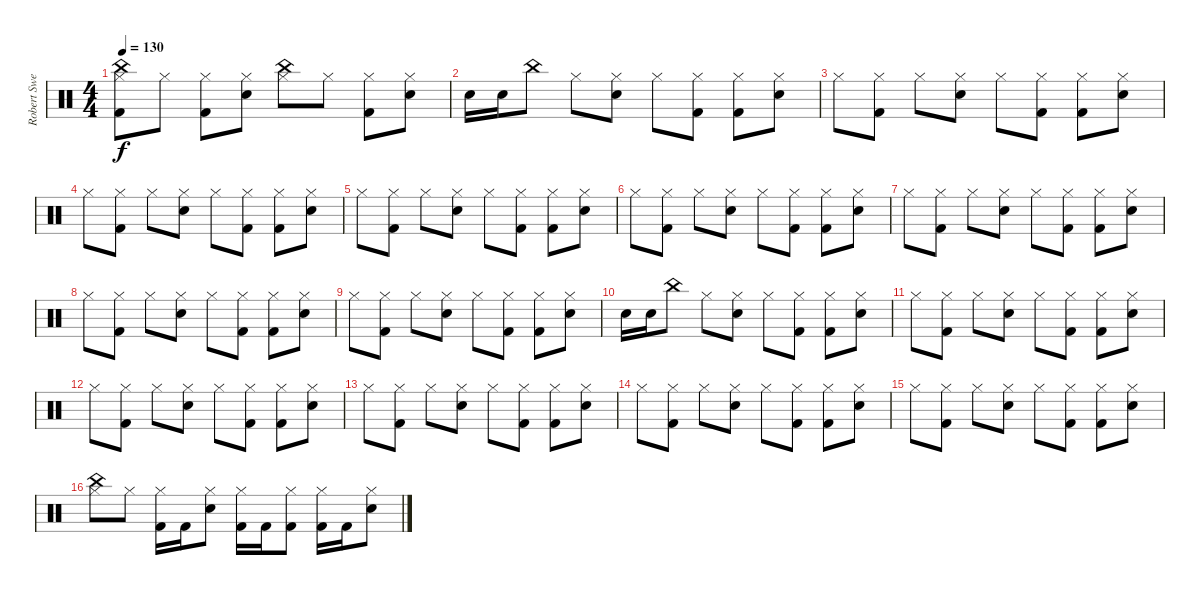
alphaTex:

\track ("Robert Sweet" "Robert Swe") {instrument percussion}
\staff {score}
\articulation defaults
\ts (4 4)
\tempo 130
\clef neutral
\ks c
("Hi-Hat (closed)" "Kick (hit) 2" "China (hit)").8{dy f} "Hi-Hat (closed)".8 ("Hi-Hat (closed)" "Kick (hit) 2").8 ("Hi-Hat (closed)" "Snare (hit) 2").8 ("Hi-Hat (closed)" "China (hit)").8 "Hi-Hat (closed)".8 ("Hi-Hat (closed)" "Kick (hit) 2").8 ("Hi-Hat (closed)" "Snare (hit) 2").8 |
"Snare (hit) 2".16 "Snare (hit) 2".16 "China (hit)".8 "Hi-Hat (closed)".8 ("Hi-Hat (closed)" "Snare (hit) 2").8 "Hi-Hat (closed)".8 ("Hi-Hat (closed)" "Kick (hit) 2").8 ("Hi-Hat (closed)" "Kick (hit) 2").8 ("Hi-Hat (closed)" "Snare (hit) 2").8 |
"Hi-Hat (closed)".8 ("Hi-Hat (closed)" "Kick (hit) 2").8 "Hi-Hat (closed)".8 ("Hi-Hat (closed)" "Snare (hit) 2").8 "Hi-Hat (closed)".8 ("Hi-Hat (closed)" "Kick (hit) 2").8 ("Hi-Hat (closed)" "Kick (hit) 2").8 ("Hi-Hat (closed)" "Snare (hit) 2").8 |
"Hi-Hat (closed)".8 ("Hi-Hat (closed)" "Kick (hit) 2").8 "Hi-Hat (closed)".8 ("Hi-Hat (closed)" "Snare (hit) 2").8 "Hi-Hat (closed)".8 ("Hi-Hat (closed)" "Kick (hit) 2").8 ("Hi-Hat (closed)" "Kick (hit) 2").8 ("Hi-Hat (closed)" "Snare (hit) 2").8 |
"Hi-Hat (closed)".8 ("Hi-Hat (closed)" "Kick (hit) 2").8 "Hi-Hat (closed)".8 ("Hi-Hat (closed)" "Snare (hit) 2").8 "Hi-Hat (closed)".8 ("Hi-Hat (closed)" "Kick (hit) 2").8 ("Hi-Hat (closed)" "Kick (hit) 2").8 ("Hi-Hat (closed)" "Snare (hit) 2").8 |
"Hi-Hat (closed)".8 ("Hi-Hat (closed)" "Kick (hit) 2").8 "Hi-Hat (closed)".8 ("Hi-Hat (closed)" "Snare (hit) 2").8 "Hi-Hat (closed)".8 ("Hi-Hat (closed)" "Kick (hit) 2").8 ("Hi-Hat (closed)" "Kick (hit) 2").8 ("Hi-Hat (closed)" "Snare (hit) 2").8 |
"Hi-Hat (closed)".8 ("Hi-Hat (closed)" "Kick (hit) 2").8 "Hi-Hat (closed)".8 ("Hi-Hat (closed)" "Snare (hit) 2").8 "Hi-Hat (closed)".8 ("Hi-Hat (closed)" "Kick (hit) 2").8 ("Hi-Hat (closed)" "Kick (hit) 2").8 ("Hi-Hat (closed)" "Snare (hit) 2").8 |
"Hi-Hat (closed)".8 ("Hi-Hat (closed)" "Kick (hit) 2").8 "Hi-Hat (closed)".8 ("Hi-Hat (closed)" "Snare (hit) 2").8 "Hi-Hat (closed)".8 ("Hi-Hat (closed)" "Kick (hit) 2").8 ("Hi-Hat (closed)" "Kick (hit) 2").8 ("Hi-Hat (closed)" "Snare (hit) 2").8 |
"Hi-Hat (closed)".8 ("Hi-Hat (closed)" "Kick (hit) 2").8 "Hi-Hat (closed)".8 ("Hi-Hat (closed)" "Snare (hit) 2").8 "Hi-Hat (closed)".8 ("Hi-Hat (closed)" "Kick (hit) 2").8 ("Hi-Hat (closed)" "Kick (hit) 2").8 ("Hi-Hat (closed)" "Snare (hit) 2").8 |
"Snare (hit) 2".16 "Snare (hit) 2".16 "China (hit)".8 "Hi-Hat (closed)".8 ("Hi-Hat (closed)" "Snare (hit) 2").8 "Hi-Hat (closed)".8 ("Hi-Hat (closed)" "Kick (hit) 2").8 ("Hi-Hat (closed)" "Kick (hit) 2").8 ("Hi-Hat (closed)" "Snare (hit) 2").8 |
"Hi-Hat (closed)".8 ("Hi-Hat (closed)" "Kick (hit) 2").8 "Hi-Hat (closed)".8 ("Hi-Hat (closed)" "Snare (hit) 2").8 "Hi-Hat (closed)".8 ("Hi-Hat (closed)" "Kick (hit) 2").8 ("Hi-Hat (closed)" "Kick (hit) 2").8 ("Hi-Hat (closed)" "Snare (hit) 2").8 |
"Hi-Hat (closed)".8 ("Hi-Hat (closed)" "Kick (hit) 2").8 "Hi-Hat (closed)".8 ("Hi-Hat (closed)" "Snare (hit) 2").8 "Hi-Hat (closed)".8 ("Hi-Hat (closed)" "Kick (hit) 2").8 ("Hi-Hat (closed)" "Kick (hit) 2").8 ("Hi-Hat (closed)" "Snare (hit) 2").8 |
"Hi-Hat (closed)".8 ("Hi-Hat (closed)" "Kick (hit) 2").8 "Hi-Hat (closed)".8 ("Hi-Hat (closed)" "Snare (hit) 2").8 "Hi-Hat (closed)".8 ("Hi-Hat (closed)" "Kick (hit) 2").8 ("Hi-Hat (closed)" "Kick (hit) 2").8 ("Hi-Hat (closed)" "Snare (hit) 2").8 |
"Hi-Hat (closed)".8 ("Hi-Hat (closed)" "Kick (hit) 2").8 "Hi-Hat (closed)".8 ("Hi-Hat (closed)" "Snare (hit) 2").8 "Hi-Hat (closed)".8 ("Hi-Hat (closed)" "Kick (hit) 2").8 ("Hi-Hat (closed)" "Kick (hit) 2").8 ("Hi-Hat (closed)" "Snare (hit) 2").8 |
"Hi-Hat (closed)".8 ("Hi-Hat (closed)" "Kick (hit) 2").8 "Hi-Hat (closed)".8 ("Hi-Hat (closed)" "Snare (hit) 2").8 "Hi-Hat (closed)".8 ("Hi-Hat (closed)" "Kick (hit) 2").8 ("Hi-Hat (closed)" "Kick (hit) 2").8 ("Hi-Hat (closed)" "Snare (hit) 2").8 |
("Hi-Hat (closed)" "China (hit)").8 "Hi-Hat (closed)".8 ("Hi-Hat (closed)" "Kick (hit) 2").16 "Kick (hit) 2".16 ("Hi-Hat (closed)" "Snare (hit) 2").8 ("Hi-Hat (closed)" "Kick (hit) 2").16 "Kick (hit) 2".16 ("Hi-Hat (closed)" "Kick (hit) 2").8 ("Hi-Hat (closed)" "Kick (hit) 2").16 "Kick (hit) 2".16 ("Hi-Hat (closed)" "Snare (hit) 2").8
